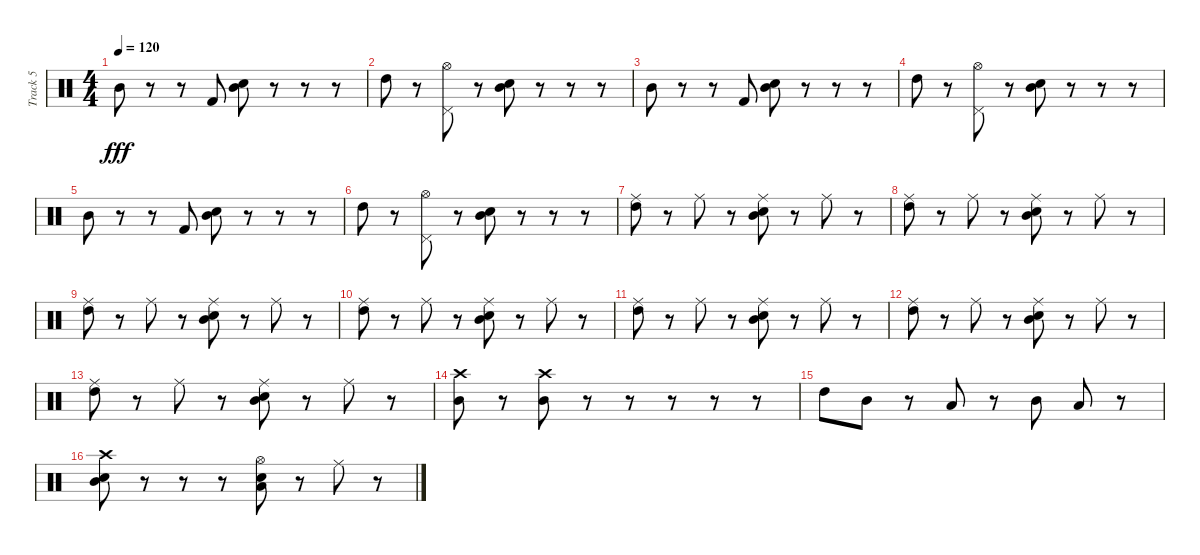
\track ("Track 5" "Track 5") {instrument percussion}
\staff {score}
\articulation defaults
\ts (4 4)
\tempo 120
\clef neutral
\ks c "Mid Tom (hit)".8{dy fff}
r.8 r.8 "Kick (hit) 2".8 ("Mid Tom (hit)" "Snare (hit) 2").8 r.8 r.8 r.8 |
"High Tom (hit)".8 r.8 ("Hi-Hat (open)" "Pedal Hi-Hat (hit)").8 r.8 ("Mid Tom (hit)" "Snare (hit) 2").8 r.8 r.8 r.8 |
"Mid Tom (hit)".8 r.8 r.8 "Kick (hit) 2".8 ("Mid Tom (hit)" "Snare (hit) 2").8 r.8 r.8 r.8 |
"High Tom (hit)".8 r.8 ("Hi-Hat (open)" "Pedal Hi-Hat (hit)").8 r.8 ("Mid Tom (hit)" "Snare (hit) 2").8 r.8 r.8 r.8 |
"Mid Tom (hit)".8 r.8 r.8 "Kick (hit) 2".8 ("Mid Tom (hit)" "Snare (hit) 2").8 r.8 r.8 r.8 |
"High Tom (hit)".8 r.8 ("Hi-Hat (open)" "Pedal Hi-Hat (hit)").8 r.8 ("Mid Tom (hit)" "Snare (hit) 2").8 r.8 r.8 r.8 |
("High Tom (hit)" "Ride (middle)").8 r.8 "Ride (middle)".8 r.8 ("Mid Tom (hit)" "Snare (hit) 2" "Ride (middle)").8 r.8 "Ride (middle)".8 r.8 |
("High Tom (hit)" "Ride (middle)").8 r.8 "Ride (middle)".8 r.8 ("Mid Tom (hit)" "Snare (hit) 2" "Ride (middle)").8 r.8 "Ride (middle)".8 r.8 |
("High Tom (hit)" "Ride (middle)").8 r.8 "Ride (middle)".8 r.8 ("Mid Tom (hit)" "Snare (hit) 2" "Ride (middle)").8 r.8 "Ride (middle)".8 r.8 |
("High Tom (hit)" "Ride (middle)").8 r.8 "Ride (middle)".8 r.8 ("Mid Tom (hit)" "Snare (hit) 2" "Ride (middle)").8 r.8 "Ride (middle)".8 r.8 |
("High Tom (hit)" "Ride (middle)").8 r.8 "Ride (middle)".8 r.8 ("Mid Tom (hit)" "Snare (hit) 2" "Ride (middle)").8 r.8 "Ride (middle)".8 r.8 |
("High Tom (hit)" "Ride (middle)").8 r.8 "Ride (middle)".8 r.8 ("Mid Tom (hit)" "Snare (hit) 2" "Ride (middle)").8 r.8 "Ride (middle)".8 r.8 |
("High Tom (hit)" "Ride (middle)").8 r.8 "Ride (middle)".8 r.8 ("Mid Tom (hit)" "Snare (hit) 2" "Ride (middle)").8 r.8 "Ride (middle)".8 r.8 |
("Crash high (hit)" "Mid Tom (hit)").8 r.8 ("Crash high (hit)" "Mid Tom (hit)").8 r.8 r.8 r.8 r.8 r.8 |
"High Tom (hit)".8 "Mid Tom (hit)".8 r.8 "Low Tom (hit)".8 r.8 "Mid Tom (hit)".8 "Low Tom (hit)".8 r.8 |
("Snare (hit) 2" "Mid Tom (hit)" "Crash high (hit)").8 r.8 r.8 r.8 ("Low Tom (hit)" "Electric Snare (hit)" "Hi-Hat (open)").8 r.8 "Ride (middle)".8 r.8
